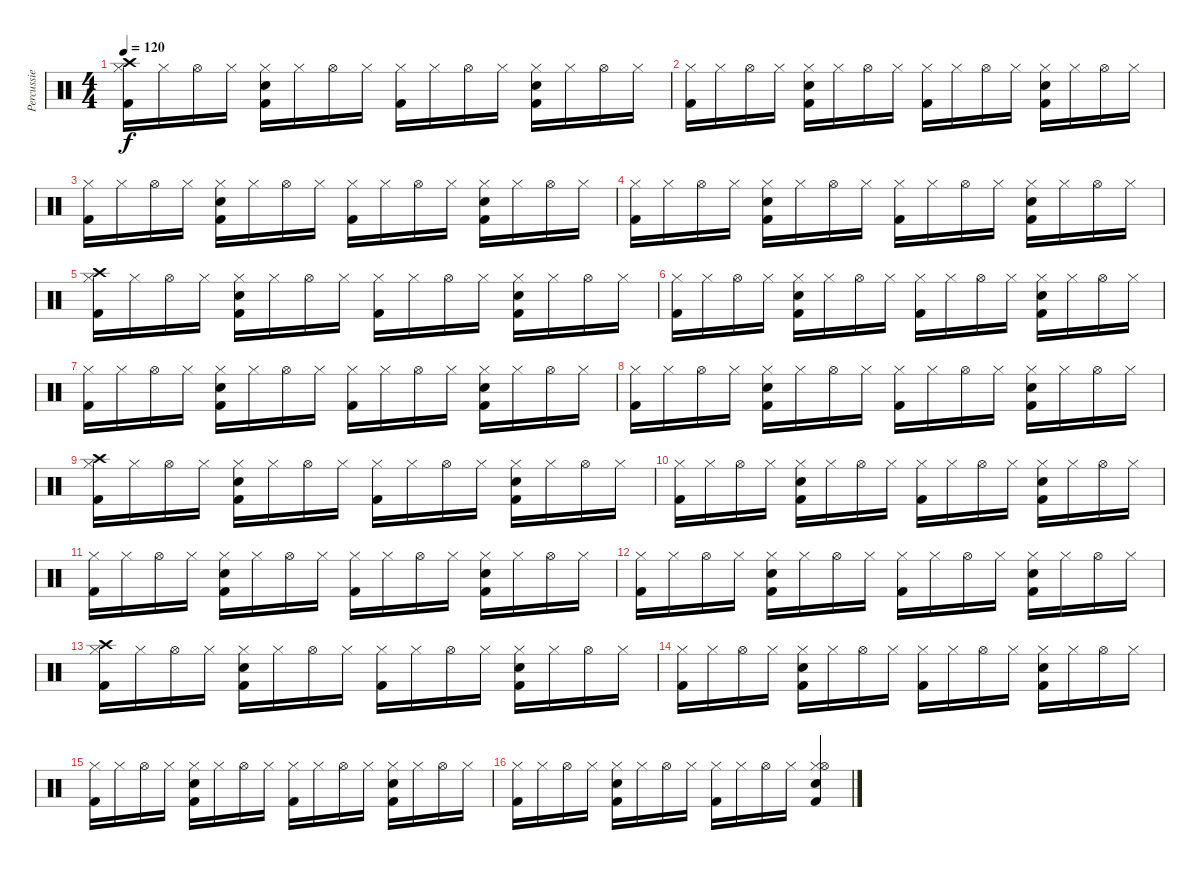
\track ("Percussie" "Percussie") {instrument percussion}
\staff {score}
\articulation defaults
\ts (4 4)
\tempo 120
\clef neutral
\ks c
("Kick (hit) 2" "Hi-Hat (closed)" "Crash high (hit)").16{dy f} "Hi-Hat (closed)".16 "Hi-Hat (open)".16 "Hi-Hat (closed)".16 ("Kick (hit) 2" "Hi-Hat (closed)" "Snare (hit) 2").16 "Hi-Hat (closed)".16 "Hi-Hat (open)".16 "Hi-Hat (closed)".16 ("Kick (hit) 2" "Hi-Hat (closed)").16 "Hi-Hat (closed)".16 "Hi-Hat (open)".16 "Hi-Hat (closed)".16 ("Kick (hit) 2" "Hi-Hat (closed)" "Snare (hit) 2").16 "Hi-Hat (closed)".16 "Hi-Hat (open)".16 "Hi-Hat (closed)".16 |
("Kick (hit) 2" "Hi-Hat (closed)").16 "Hi-Hat (closed)".16 "Hi-Hat (open)".16 "Hi-Hat (closed)".16 ("Kick (hit) 2" "Hi-Hat (closed)" "Snare (hit) 2").16 "Hi-Hat (closed)".16 "Hi-Hat (open)".16 "Hi-Hat (closed)".16 ("Kick (hit) 2" "Hi-Hat (closed)").16 "Hi-Hat (closed)".16 "Hi-Hat (open)".16 "Hi-Hat (closed)".16 ("Kick (hit) 2" "Hi-Hat (closed)" "Snare (hit) 2").16 "Hi-Hat (closed)".16 "Hi-Hat (open)".16 "Hi-Hat (closed)".16 |
("Kick (hit) 2" "Hi-Hat (closed)").16 "Hi-Hat (closed)".16 "Hi-Hat (open)".16 "Hi-Hat (closed)".16 ("Kick (hit) 2" "Hi-Hat (closed)" "Snare (hit) 2").16 "Hi-Hat (closed)".16 "Hi-Hat (open)".16 "Hi-Hat (closed)".16 ("Kick (hit) 2" "Hi-Hat (closed)").16 "Hi-Hat (closed)".16 "Hi-Hat (open)".16 "Hi-Hat (closed)".16 ("Kick (hit) 2" "Hi-Hat (closed)" "Snare (hit) 2").16 "Hi-Hat (closed)".16 "Hi-Hat (open)".16 "Hi-Hat (closed)".16 |
("Kick (hit) 2" "Hi-Hat (closed)").16 "Hi-Hat (closed)".16 "Hi-Hat (open)".16 "Hi-Hat (closed)".16 ("Kick (hit) 2" "Hi-Hat (closed)" "Snare (hit) 2").16 "Hi-Hat (closed)".16 "Hi-Hat (open)".16 "Hi-Hat (closed)".16 ("Kick (hit) 2" "Hi-Hat (closed)").16 "Hi-Hat (closed)".16 "Hi-Hat (open)".16 "Hi-Hat (closed)".16 ("Kick (hit) 2" "Hi-Hat (closed)" "Snare (hit) 2").16 "Hi-Hat (closed)".16 "Hi-Hat (open)".16 "Hi-Hat (closed)".16 |
("Kick (hit) 2" "Hi-Hat (closed)" "Crash high (hit)").16 "Hi-Hat (closed)".16 "Hi-Hat (open)".16 "Hi-Hat (closed)".16 ("Kick (hit) 2" "Hi-Hat (closed)" "Snare (hit) 2").16 "Hi-Hat (closed)".16 "Hi-Hat (open)".16 "Hi-Hat (closed)".16 ("Kick (hit) 2" "Hi-Hat (closed)").16 "Hi-Hat (closed)".16 "Hi-Hat (open)".16 "Hi-Hat (closed)".16 ("Kick (hit) 2" "Hi-Hat (closed)" "Snare (hit) 2").16 "Hi-Hat (closed)".16 "Hi-Hat (open)".16 "Hi-Hat (closed)".16 |
("Kick (hit) 2" "Hi-Hat (closed)").16 "Hi-Hat (closed)".16 "Hi-Hat (open)".16 "Hi-Hat (closed)".16 ("Kick (hit) 2" "Hi-Hat (closed)" "Snare (hit) 2").16 "Hi-Hat (closed)".16 "Hi-Hat (open)".16 "Hi-Hat (closed)".16 ("Kick (hit) 2" "Hi-Hat (closed)").16 "Hi-Hat (closed)".16 "Hi-Hat (open)".16 "Hi-Hat (closed)".16 ("Kick (hit) 2" "Hi-Hat (closed)" "Snare (hit) 2").16 "Hi-Hat (closed)".16 "Hi-Hat (open)".16 "Hi-Hat (closed)".16 |
("Kick (hit) 2" "Hi-Hat (closed)").16 "Hi-Hat (closed)".16 "Hi-Hat (open)".16 "Hi-Hat (closed)".16 ("Kick (hit) 2" "Hi-Hat (closed)" "Snare (hit) 2").16 "Hi-Hat (closed)".16 "Hi-Hat (open)".16 "Hi-Hat (closed)".16 ("Kick (hit) 2" "Hi-Hat (closed)").16 "Hi-Hat (closed)".16 "Hi-Hat (open)".16 "Hi-Hat (closed)".16 ("Kick (hit) 2" "Hi-Hat (closed)" "Snare (hit) 2").16 "Hi-Hat (closed)".16 "Hi-Hat (open)".16 "Hi-Hat (closed)".16 |
("Kick (hit) 2" "Hi-Hat (closed)").16 "Hi-Hat (closed)".16 "Hi-Hat (open)".16 "Hi-Hat (closed)".16 ("Kick (hit) 2" "Hi-Hat (closed)" "Snare (hit) 2").16 "Hi-Hat (closed)".16 "Hi-Hat (open)".16 "Hi-Hat (closed)".16 ("Kick (hit) 2" "Hi-Hat (closed)").16 "Hi-Hat (closed)".16 "Hi-Hat (open)".16 "Hi-Hat (closed)".16 ("Kick (hit) 2" "Hi-Hat (closed)" "Snare (hit) 2").16 "Hi-Hat (closed)".16 "Hi-Hat (open)".16 "Hi-Hat (closed)".16 |
("Kick (hit) 2" "Hi-Hat (closed)" "Crash high (hit)").16 "Hi-Hat (closed)".16 "Hi-Hat (open)".16 "Hi-Hat (closed)".16 ("Kick (hit) 2" "Hi-Hat (closed)" "Snare (hit) 2").16 "Hi-Hat (closed)".16 "Hi-Hat (open)".16 "Hi-Hat (closed)".16 ("Kick (hit) 2" "Hi-Hat (closed)").16 "Hi-Hat (closed)".16 "Hi-Hat (open)".16 "Hi-Hat (closed)".16 ("Kick (hit) 2" "Hi-Hat (closed)" "Snare (hit) 2").16 "Hi-Hat (closed)".16 "Hi-Hat (open)".16 "Hi-Hat (closed)".16 |
("Kick (hit) 2" "Hi-Hat (closed)").16 "Hi-Hat (closed)".16 "Hi-Hat (open)".16 "Hi-Hat (closed)".16 ("Kick (hit) 2" "Hi-Hat (closed)" "Snare (hit) 2").16 "Hi-Hat (closed)".16 "Hi-Hat (open)".16 "Hi-Hat (closed)".16 ("Kick (hit) 2" "Hi-Hat (closed)").16 "Hi-Hat (closed)".16 "Hi-Hat (open)".16 "Hi-Hat (closed)".16 ("Kick (hit) 2" "Hi-Hat (closed)" "Snare (hit) 2").16 "Hi-Hat (closed)".16 "Hi-Hat (open)".16 "Hi-Hat (closed)".16 |
("Kick (hit) 2" "Hi-Hat (closed)").16 "Hi-Hat (closed)".16 "Hi-Hat (open)".16 "Hi-Hat (closed)".16 ("Kick (hit) 2" "Hi-Hat (closed)" "Snare (hit) 2").16 "Hi-Hat (closed)".16 "Hi-Hat (open)".16 "Hi-Hat (closed)".16 ("Kick (hit) 2" "Hi-Hat (closed)").16 "Hi-Hat (closed)".16 "Hi-Hat (open)".16 "Hi-Hat (closed)".16 ("Kick (hit) 2" "Hi-Hat (closed)" "Snare (hit) 2").16 "Hi-Hat (closed)".16 "Hi-Hat (open)".16 "Hi-Hat (closed)".16 |
("Kick (hit) 2" "Hi-Hat (closed)").16 "Hi-Hat (closed)".16 "Hi-Hat (open)".16 "Hi-Hat (closed)".16 ("Kick (hit) 2" "Hi-Hat (closed)" "Snare (hit) 2").16 "Hi-Hat (closed)".16 "Hi-Hat (open)".16 "Hi-Hat (closed)".16 ("Kick (hit) 2" "Hi-Hat (closed)").16 "Hi-Hat (closed)".16 "Hi-Hat (open)".16 "Hi-Hat (closed)".16 ("Kick (hit) 2" "Hi-Hat (closed)" "Snare (hit) 2").16 "Hi-Hat (closed)".16 "Hi-Hat (open)".16 "Hi-Hat (closed)".16 |
("Kick (hit) 2" "Hi-Hat (closed)" "Crash high (hit)").16 "Hi-Hat (closed)".16 "Hi-Hat (open)".16 "Hi-Hat (closed)".16 ("Kick (hit) 2" "Hi-Hat (closed)" "Snare (hit) 2").16 "Hi-Hat (closed)".16 "Hi-Hat (open)".16 "Hi-Hat (closed)".16 ("Kick (hit) 2" "Hi-Hat (closed)").16 "Hi-Hat (closed)".16 "Hi-Hat (open)".16 "Hi-Hat (closed)".16 ("Kick (hit) 2" "Hi-Hat (closed)" "Snare (hit) 2").16 "Hi-Hat (closed)".16 "Hi-Hat (open)".16 "Hi-Hat (closed)".16 |
("Kick (hit) 2" "Hi-Hat (closed)").16 "Hi-Hat (closed)".16 "Hi-Hat (open)".16 "Hi-Hat (closed)".16 ("Kick (hit) 2" "Hi-Hat (closed)" "Snare (hit) 2").16 "Hi-Hat (closed)".16 "Hi-Hat (open)".16 "Hi-Hat (closed)".16 ("Kick (hit) 2" "Hi-Hat (closed)").16 "Hi-Hat (closed)".16 "Hi-Hat (open)".16 "Hi-Hat (closed)".16 ("Kick (hit) 2" "Hi-Hat (closed)" "Snare (hit) 2").16 "Hi-Hat (closed)".16 "Hi-Hat (open)".16 "Hi-Hat (closed)".16 |
("Kick (hit) 2" "Hi-Hat (closed)").16 "Hi-Hat (closed)".16 "Hi-Hat (open)".16 "Hi-Hat (closed)".16 ("Kick (hit) 2" "Hi-Hat (closed)" "Snare (hit) 2").16 "Hi-Hat (closed)".16 "Hi-Hat (open)".16 "Hi-Hat (closed)".16 ("Kick (hit) 2" "Hi-Hat (closed)").16 "Hi-Hat (closed)".16 "Hi-Hat (open)".16 "Hi-Hat (closed)".16 ("Kick (hit) 2" "Hi-Hat (closed)" "Snare (hit) 2").16 "Hi-Hat (closed)".16 "Hi-Hat (open)".16 "Hi-Hat (closed)".16 |
("Kick (hit) 2" "Hi-Hat (closed)").16 "Hi-Hat (closed)".16 "Hi-Hat (open)".16 "Hi-Hat (closed)".16 ("Kick (hit) 2" "Hi-Hat (closed)" "Snare (hit) 2").16 "Hi-Hat (closed)".16 "Hi-Hat (open)".16 "Hi-Hat (closed)".16 ("Kick (hit) 2" "Hi-Hat (closed)").16 "Hi-Hat (closed)".16 "Hi-Hat (open)".16 "Hi-Hat (closed)".16 ("Kick (hit) 2" "Hi-Hat (closed)" "Snare (hit) 2" "Hi-Hat (open)").4
